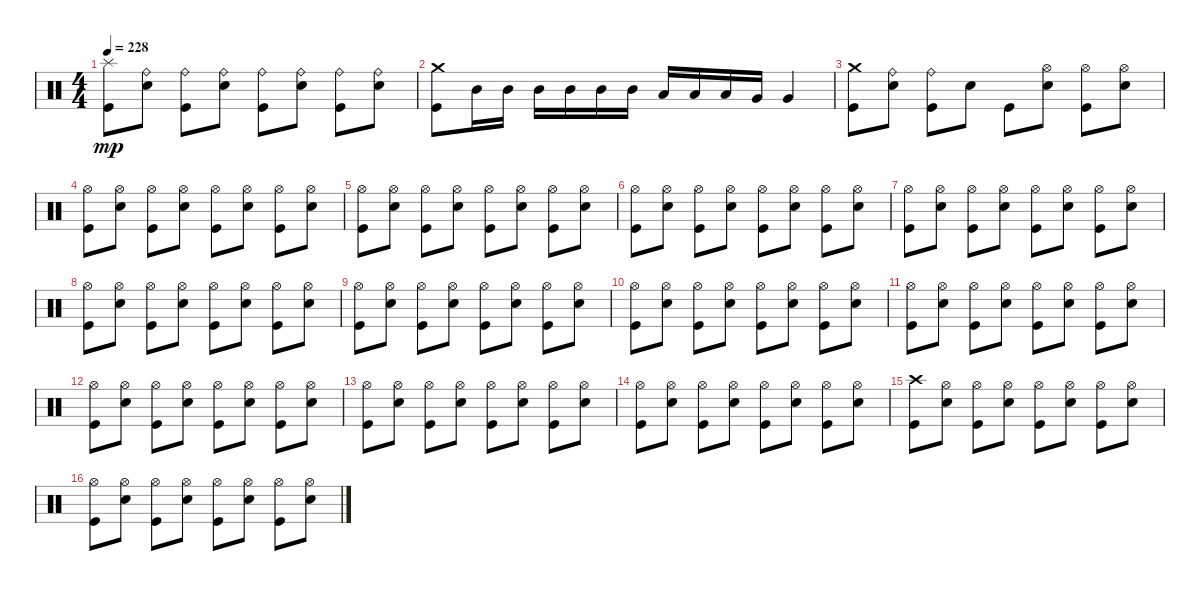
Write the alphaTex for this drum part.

\track "" {instrument percussion}
\staff {score}
\articulation defaults
\ts (4 4)
\tempo 228
\clef neutral
\ks c
("Kick (hit)" "Splash (hit)").8{dy mp} ("Electric Snare (hit)" "Ride (bell)").8 ("Kick (hit)" "Ride (bell)").8 ("Electric Snare (hit)" "Ride (bell)").8 ("Kick (hit)" "Ride (bell)").8 ("Electric Snare (hit)" "Ride (bell)").8 ("Kick (hit)" "Ride (bell)").8 ("Electric Snare (hit)" "Ride (bell)").8 |
("Kick (hit)" "Crash medium (hit)").8 "Mid Tom (hit)".16 "Mid Tom (hit)".16 "Mid Tom (hit)".16 "Mid Tom (hit)".16 "Mid Tom (hit)".16 "Mid Tom (hit)".16 "Low Tom (hit)".16 "Low Tom (hit)".16 "Low Tom (hit)".16 "Very Low Tom (hit)".16 "Very Low Tom (hit)".4 |
("Kick (hit)" "Crash medium (hit)").8 ("Electric Snare (hit)" "Ride (bell)").8 ("Kick (hit)" "Ride (bell)").8 "Electric Snare (hit)".8 "Kick (hit)".8 ("Electric Snare (hit)" "Hi-Hat (open)").8 ("Kick (hit)" "Hi-Hat (open)").8 ("Electric Snare (hit)" "Hi-Hat (open)").8 |
("Kick (hit)" "Hi-Hat (open)").8 ("Electric Snare (hit)" "Hi-Hat (open)").8 ("Kick (hit)" "Hi-Hat (open)").8 ("Electric Snare (hit)" "Hi-Hat (open)").8 ("Kick (hit)" "Hi-Hat (open)").8 ("Electric Snare (hit)" "Hi-Hat (open)").8 ("Kick (hit)" "Hi-Hat (open)").8 ("Electric Snare (hit)" "Hi-Hat (open)").8 |
("Kick (hit)" "Hi-Hat (open)").8 ("Electric Snare (hit)" "Hi-Hat (open)").8 ("Kick (hit)" "Hi-Hat (open)").8 ("Electric Snare (hit)" "Hi-Hat (open)").8 ("Kick (hit)" "Hi-Hat (open)").8 ("Electric Snare (hit)" "Hi-Hat (open)").8 ("Kick (hit)" "Hi-Hat (open)").8 ("Electric Snare (hit)" "Hi-Hat (open)").8 |
("Kick (hit)" "Hi-Hat (open)").8 ("Electric Snare (hit)" "Hi-Hat (open)").8 ("Kick (hit)" "Hi-Hat (open)").8 ("Electric Snare (hit)" "Hi-Hat (open)").8 ("Kick (hit)" "Hi-Hat (open)").8 ("Electric Snare (hit)" "Hi-Hat (open)").8 ("Kick (hit)" "Hi-Hat (open)").8 ("Electric Snare (hit)" "Hi-Hat (open)").8 |
("Kick (hit)" "Hi-Hat (open)").8 ("Electric Snare (hit)" "Hi-Hat (open)").8 ("Kick (hit)" "Hi-Hat (open)").8 ("Electric Snare (hit)" "Hi-Hat (open)").8 ("Kick (hit)" "Hi-Hat (open)").8 ("Electric Snare (hit)" "Hi-Hat (open)").8 ("Kick (hit)" "Hi-Hat (open)").8 ("Electric Snare (hit)" "Hi-Hat (open)").8 |
("Kick (hit)" "Hi-Hat (open)").8 ("Electric Snare (hit)" "Hi-Hat (open)").8 ("Kick (hit)" "Hi-Hat (open)").8 ("Electric Snare (hit)" "Hi-Hat (open)").8 ("Kick (hit)" "Hi-Hat (open)").8 ("Electric Snare (hit)" "Hi-Hat (open)").8 ("Kick (hit)" "Hi-Hat (open)").8 ("Electric Snare (hit)" "Hi-Hat (open)").8 |
("Kick (hit)" "Hi-Hat (open)").8 ("Electric Snare (hit)" "Hi-Hat (open)").8 ("Kick (hit)" "Hi-Hat (open)").8 ("Electric Snare (hit)" "Hi-Hat (open)").8 ("Kick (hit)" "Hi-Hat (open)").8 ("Electric Snare (hit)" "Hi-Hat (open)").8 ("Kick (hit)" "Hi-Hat (open)").8 ("Electric Snare (hit)" "Hi-Hat (open)").8 |
("Kick (hit)" "Hi-Hat (open)").8 ("Electric Snare (hit)" "Hi-Hat (open)").8 ("Kick (hit)" "Hi-Hat (open)").8 ("Electric Snare (hit)" "Hi-Hat (open)").8 ("Kick (hit)" "Hi-Hat (open)").8 ("Electric Snare (hit)" "Hi-Hat (open)").8 ("Kick (hit)" "Hi-Hat (open)").8 ("Electric Snare (hit)" "Hi-Hat (open)").8 |
("Kick (hit)" "Hi-Hat (open)").8 ("Electric Snare (hit)" "Hi-Hat (open)").8 ("Kick (hit)" "Hi-Hat (open)").8 ("Electric Snare (hit)" "Hi-Hat (open)").8 ("Kick (hit)" "Hi-Hat (open)").8 ("Electric Snare (hit)" "Hi-Hat (open)").8 ("Kick (hit)" "Hi-Hat (open)").8 ("Electric Snare (hit)" "Hi-Hat (open)").8 |
("Kick (hit)" "Hi-Hat (open)").8 ("Electric Snare (hit)" "Hi-Hat (open)").8 ("Kick (hit)" "Hi-Hat (open)").8 ("Electric Snare (hit)" "Hi-Hat (open)").8 ("Kick (hit)" "Hi-Hat (open)").8 ("Electric Snare (hit)" "Hi-Hat (open)").8 ("Kick (hit)" "Hi-Hat (open)").8 ("Electric Snare (hit)" "Hi-Hat (open)").8 |
("Kick (hit)" "Hi-Hat (open)").8 ("Electric Snare (hit)" "Hi-Hat (open)").8 ("Kick (hit)" "Hi-Hat (open)").8 ("Electric Snare (hit)" "Hi-Hat (open)").8 ("Kick (hit)" "Hi-Hat (open)").8 ("Electric Snare (hit)" "Hi-Hat (open)").8 ("Kick (hit)" "Hi-Hat (open)").8 ("Electric Snare (hit)" "Hi-Hat (open)").8 |
("Kick (hit)" "Hi-Hat (open)").8 ("Electric Snare (hit)" "Hi-Hat (open)").8 ("Kick (hit)" "Hi-Hat (open)").8 ("Electric Snare (hit)" "Hi-Hat (open)").8 ("Kick (hit)" "Hi-Hat (open)").8 ("Electric Snare (hit)" "Hi-Hat (open)").8 ("Kick (hit)" "Hi-Hat (open)").8 ("Electric Snare (hit)" "Hi-Hat (open)").8 |
("Kick (hit)" "Crash high (hit)").8 ("Electric Snare (hit)" "Hi-Hat (open)").8 ("Kick (hit)" "Hi-Hat (open)").8 ("Electric Snare (hit)" "Hi-Hat (open)").8 ("Kick (hit)" "Hi-Hat (open)").8 ("Electric Snare (hit)" "Hi-Hat (open)").8 ("Kick (hit)" "Hi-Hat (open)").8 ("Electric Snare (hit)" "Hi-Hat (open)").8 |
("Kick (hit)" "Hi-Hat (open)").8 ("Electric Snare (hit)" "Hi-Hat (open)").8 ("Kick (hit)" "Hi-Hat (open)").8 ("Electric Snare (hit)" "Hi-Hat (open)").8 ("Kick (hit)" "Hi-Hat (open)").8 ("Electric Snare (hit)" "Hi-Hat (open)").8 ("Kick (hit)" "Hi-Hat (open)").8 ("Electric Snare (hit)" "Hi-Hat (open)").8
